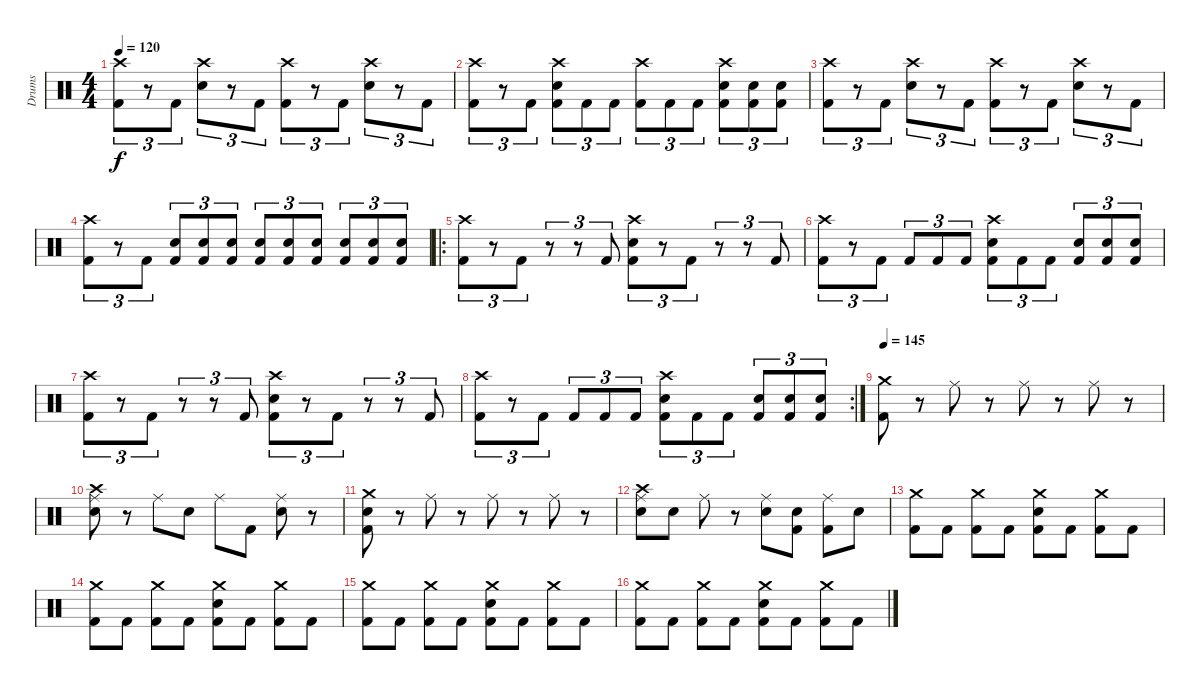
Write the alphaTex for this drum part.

\track ("Drums" "Drums") {instrument percussion}
\staff {score}
\articulation defaults
\ts (4 4)
\tempo 120
\clef neutral
\ks c
("Crash high (hit)" "Kick (hit) 2").8{tu (3 2) dy f} r.8{tu (3 2)} "Kick (hit) 2".8{tu (3 2)} ("Crash high (hit)" "Snare (hit) 2").8{tu (3 2)} r.8{tu (3 2)} "Kick (hit) 2".8{tu (3 2)} ("Crash high (hit)" "Kick (hit) 2").8{tu (3 2)} r.8{tu (3 2)} "Kick (hit) 2".8{tu (3 2)} ("Crash high (hit)" "Snare (hit) 2").8{tu (3 2)} r.8{tu (3 2)} "Kick (hit) 2".8{tu (3 2)} |
("Crash high (hit)" "Kick (hit) 2").8{tu (3 2)} r.8{tu (3 2)} "Kick (hit) 2".8{tu (3 2)} ("Crash high (hit)" "Snare (hit) 2" "Kick (hit) 2").8{tu (3 2)} "Kick (hit) 2".8{tu (3 2)} "Kick (hit) 2".8{tu (3 2)} ("Crash high (hit)" "Kick (hit) 2").8{tu (3 2)} "Kick (hit) 2".8{tu (3 2)} "Kick (hit) 2".8{tu (3 2)} ("Crash high (hit)" "Snare (hit) 2" "Kick (hit) 2").8{tu (3 2)} ("Snare (hit) 2" "Kick (hit) 2").8{tu (3 2)} ("Snare (hit) 2" "Kick (hit) 2").8{tu (3 2)} |
("Crash high (hit)" "Kick (hit) 2").8{tu (3 2)} r.8{tu (3 2)} "Kick (hit) 2".8{tu (3 2)} ("Crash high (hit)" "Snare (hit) 2").8{tu (3 2)} r.8{tu (3 2)} "Kick (hit) 2".8{tu (3 2)} ("Crash high (hit)" "Kick (hit) 2").8{tu (3 2)} r.8{tu (3 2)} "Kick (hit) 2".8{tu (3 2)} ("Crash high (hit)" "Snare (hit) 2").8{tu (3 2)} r.8{tu (3 2)} "Kick (hit) 2".8{tu (3 2)} |
("Crash high (hit)" "Kick (hit) 2").8{tu (3 2)} r.8{tu (3 2)} "Kick (hit) 2".8{tu (3 2)} ("Snare (hit) 2" "Kick (hit) 2").8{tu (3 2)} ("Snare (hit) 2" "Kick (hit) 2").8{tu (3 2)} ("Snare (hit) 2" "Kick (hit) 2").8{tu (3 2)} ("Snare (hit) 2" "Kick (hit) 2").8{tu (3 2)} ("Snare (hit) 2" "Kick (hit) 2").8{tu (3 2)} ("Snare (hit) 2" "Kick (hit) 2").8{tu (3 2)} ("Snare (hit) 2" "Kick (hit) 2").8{tu (3 2)} ("Snare (hit) 2" "Kick (hit) 2").8{tu (3 2)} ("Snare (hit) 2" "Kick (hit) 2").8{tu (3 2)} |
\ro
("Crash high (hit)" "Kick (hit) 2").8{tu (3 2)} r.8{tu (3 2)} "Kick (hit) 2".8{tu (3 2)} r.8{tu (3 2)} r.8{tu (3 2)} "Kick (hit) 2".8{tu (3 2)} ("Crash high (hit)" "Snare (hit) 2" "Kick (hit) 2").8{tu (3 2)} r.8{tu (3 2)} "Kick (hit) 2".8{tu (3 2)} r.8{tu (3 2)} r.8{tu (3 2)} "Kick (hit) 2".8{tu (3 2)} |
("Crash high (hit)" "Kick (hit) 2").8{tu (3 2)} r.8{tu (3 2)} "Kick (hit) 2".8{tu (3 2)} "Kick (hit) 2".8{tu (3 2)} "Kick (hit) 2".8{tu (3 2)} "Kick (hit) 2".8{tu (3 2)} ("Crash high (hit)" "Snare (hit) 2" "Kick (hit) 2").8{tu (3 2)} "Kick (hit) 2".8{tu (3 2)} "Kick (hit) 2".8{tu (3 2)} ("Snare (hit) 2" "Kick (hit) 2").8{tu (3 2)} ("Snare (hit) 2" "Kick (hit) 2").8{tu (3 2)} ("Snare (hit) 2" "Kick (hit) 2").8{tu (3 2)} |
("Crash high (hit)" "Kick (hit) 2").8{tu (3 2)} r.8{tu (3 2)} "Kick (hit) 2".8{tu (3 2)} r.8{tu (3 2)} r.8{tu (3 2)} "Kick (hit) 2".8{tu (3 2)} ("Crash high (hit)" "Snare (hit) 2" "Kick (hit) 2").8{tu (3 2)} r.8{tu (3 2)} "Kick (hit) 2".8{tu (3 2)} r.8{tu (3 2)} r.8{tu (3 2)} "Kick (hit) 2".8{tu (3 2)} |
\rc 2
("Crash high (hit)" "Kick (hit) 2").8{tu (3 2)} r.8{tu (3 2)} "Kick (hit) 2".8{tu (3 2)} "Kick (hit) 2".8{tu (3 2)} "Kick (hit) 2".8{tu (3 2)} "Kick (hit) 2".8{tu (3 2)} ("Crash high (hit)" "Snare (hit) 2" "Kick (hit) 2").8{tu (3 2)} "Kick (hit) 2".8{tu (3 2)} "Kick (hit) 2".8{tu (3 2)} ("Snare (hit) 2" "Kick (hit) 2").8{tu (3 2)} ("Snare (hit) 2" "Kick (hit) 2").8{tu (3 2)} ("Snare (hit) 2" "Kick (hit) 2").8{tu (3 2)} |
\tempo 145
("Crash medium (hit)" "Kick (hit) 2").8 r.8 "Ride (middle)".8 r.8 "Ride (middle)".8 r.8 "Ride (middle)".8 r.8 |
("Crash high (hit)" "Ride (middle)" "Snare (hit) 2").8 r.8 "Ride (middle)".8 "Snare (hit) 2".8 "Ride (middle)".8 "Kick (hit) 2".8 ("Ride (middle)" "Snare (hit) 2").8 r.8 |
("Crash medium (hit)" "Snare (hit) 2" "Kick (hit) 2").8 r.8 "Ride (middle)".8 r.8 "Ride (middle)".8 r.8 "Ride (middle)".8 r.8 |
("Crash high (hit)" "Ride (middle)" "Snare (hit) 2").8 "Snare (hit) 2".8 "Ride (middle)".8 r.8 ("Ride (middle)" "Snare (hit) 2").8 ("Snare (hit) 2" "Kick (hit) 2").8 ("Ride (middle)" "Kick (hit) 2").8 "Snare (hit) 2".8 |
("Crash medium (hit)" "Kick (hit) 2").8 "Kick (hit) 2".8 ("Crash medium (hit)" "Kick (hit) 2").8 "Kick (hit) 2".8 ("Crash medium (hit)" "Snare (hit) 2" "Kick (hit) 2").8 "Kick (hit) 2".8 ("Crash medium (hit)" "Kick (hit) 2").8 "Kick (hit) 2".8 |
("Crash medium (hit)" "Kick (hit) 2").8 "Kick (hit) 2".8 ("Crash medium (hit)" "Kick (hit) 2").8 "Kick (hit) 2".8 ("Crash medium (hit)" "Snare (hit) 2" "Kick (hit) 2").8 "Kick (hit) 2".8 ("Crash medium (hit)" "Kick (hit) 2").8 "Kick (hit) 2".8 |
("Crash medium (hit)" "Kick (hit) 2").8 "Kick (hit) 2".8 ("Crash medium (hit)" "Kick (hit) 2").8 "Kick (hit) 2".8 ("Crash medium (hit)" "Snare (hit) 2" "Kick (hit) 2").8 "Kick (hit) 2".8 ("Crash medium (hit)" "Kick (hit) 2").8 "Kick (hit) 2".8 |
("Crash medium (hit)" "Kick (hit) 2").8 "Kick (hit) 2".8 ("Crash medium (hit)" "Kick (hit) 2").8 "Kick (hit) 2".8 ("Crash medium (hit)" "Snare (hit) 2" "Kick (hit) 2").8 "Kick (hit) 2".8 ("Crash medium (hit)" "Kick (hit) 2").8 "Kick (hit) 2".8
